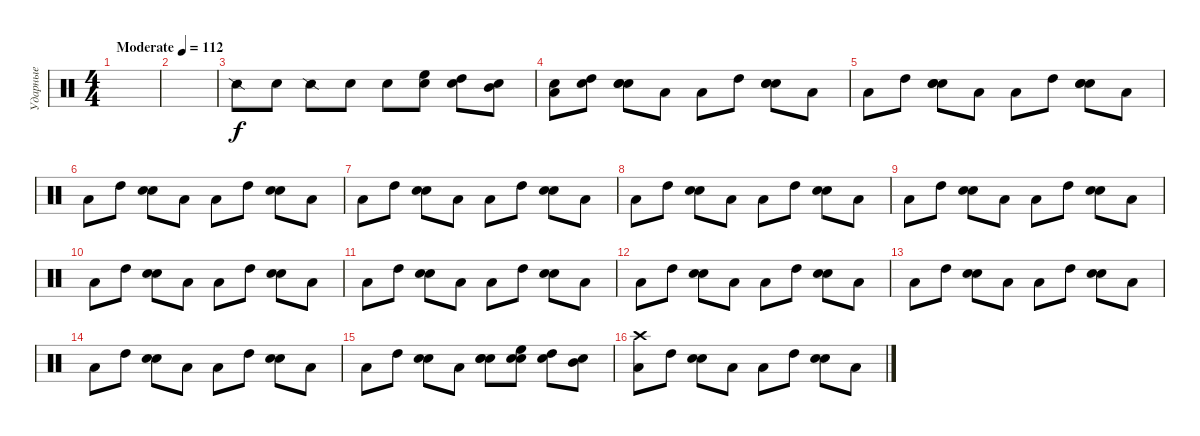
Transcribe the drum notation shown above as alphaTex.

\track ("Ударные" "Ударные") {instrument percussion}
\staff {score}
\articulation defaults
\ts (4 4)
\tempo (112 "Moderate")
\clef neutral
\ks c
|
|
"Snare (side stick) 2".8 "Snare (hit)".8 "Snare (side stick) 2".8 "Snare (hit)".8 "Snare (hit)".8 ("Snare (hit)" "High Floor Tom (hit)").8 ("Snare (hit)" "High Tom (hit)").8 ("Mid Tom (hit)" "Snare (hit)").8 |
("Low Tom (hit)" "Snare (hit)").8 ("Snare (hit)" "High Tom (hit)").8 ("Snare (hit) 2" "Snare (hit) 2" "Snare (hit)").8 "Low Tom (hit)".8 "Low Tom (hit)".8 "High Tom (hit)".8 ("Snare (hit) 2" "Snare (hit) 2" "Snare (hit)").8 "Low Tom (hit)".8 |
"Low Tom (hit)".8 "High Tom (hit)".8 ("Snare (hit) 2" "Snare (hit) 2" "Snare (hit)").8 "Low Tom (hit)".8 "Low Tom (hit)".8 "High Tom (hit)".8 ("Snare (hit) 2" "Snare (hit) 2" "Snare (hit)").8 "Low Tom (hit)".8 |
"Low Tom (hit)".8 "High Tom (hit)".8 ("Snare (hit) 2" "Snare (hit) 2").8 "Low Tom (hit)".8 "Low Tom (hit)".8 "High Tom (hit)".8 ("Snare (hit) 2" "Snare (hit) 2").8 "Low Tom (hit)".8 |
"Low Tom (hit)".8 "High Tom (hit)".8 ("Snare (hit) 2" "Snare (hit) 2").8 "Low Tom (hit)".8 "Low Tom (hit)".8 "High Tom (hit)".8 ("Snare (hit) 2" "Snare (hit) 2").8 "Low Tom (hit)".8 |
"Low Tom (hit)".8 "High Tom (hit)".8 ("Snare (hit) 2" "Snare (hit) 2").8 "Low Tom (hit)".8 "Low Tom (hit)".8 "High Tom (hit)".8 ("Snare (hit) 2" "Snare (hit) 2").8 "Low Tom (hit)".8 |
"Low Tom (hit)".8 "High Tom (hit)".8 ("Snare (hit) 2" "Snare (hit) 2").8 "Low Tom (hit)".8 "Low Tom (hit)".8 "High Tom (hit)".8 ("Snare (hit) 2" "Snare (hit) 2").8 "Low Tom (hit)".8 |
"Low Tom (hit)".8 "High Tom (hit)".8 ("Snare (hit) 2" "Snare (hit) 2").8 "Low Tom (hit)".8 "Low Tom (hit)".8 "High Tom (hit)".8 ("Snare (hit) 2" "Snare (hit) 2").8 "Low Tom (hit)".8 |
"Low Tom (hit)".8 "High Tom (hit)".8 ("Snare (hit) 2" "Snare (hit) 2").8 "Low Tom (hit)".8 "Low Tom (hit)".8 "High Tom (hit)".8 ("Snare (hit) 2" "Snare (hit) 2").8 "Low Tom (hit)".8 |
"Low Tom (hit)".8 "High Tom (hit)".8 ("Snare (hit) 2" "Snare (hit) 2").8 "Low Tom (hit)".8 "Low Tom (hit)".8 "High Tom (hit)".8 ("Snare (hit) 2" "Snare (hit) 2").8 "Low Tom (hit)".8 |
"Low Tom (hit)".8 "High Tom (hit)".8 ("Snare (hit) 2" "Snare (hit) 2").8 "Low Tom (hit)".8 "Low Tom (hit)".8 "High Tom (hit)".8 ("Snare (hit) 2" "Snare (hit) 2").8 "Low Tom (hit)".8 |
"Low Tom (hit)".8 "High Tom (hit)".8 ("Snare (hit) 2" "Snare (hit) 2").8 "Low Tom (hit)".8 "Low Tom (hit)".8 "High Tom (hit)".8 ("Snare (hit) 2" "Snare (hit) 2").8 "Low Tom (hit)".8 |
"Low Tom (hit)".8 "High Tom (hit)".8 ("Snare (hit) 2" "Snare (hit) 2").8 "Low Tom (hit)".8 ("Snare (hit)" "Snare (hit)" "Snare (hit)").8 ("Snare (hit)" "Snare (hit)" "High Floor Tom (hit)").8 ("Snare (hit)" "High Tom (hit)").8 ("Mid Tom (hit)" "Snare (hit)").8 |
("Crash high (hit)" "Low Tom (hit)").8 "High Tom (hit)".8 ("Snare (hit) 2" "Snare (hit) 2").8 "Low Tom (hit)".8 "Low Tom (hit)".8 "High Tom (hit)".8 ("Snare (hit) 2" "Snare (hit) 2").8 "Low Tom (hit)".8
